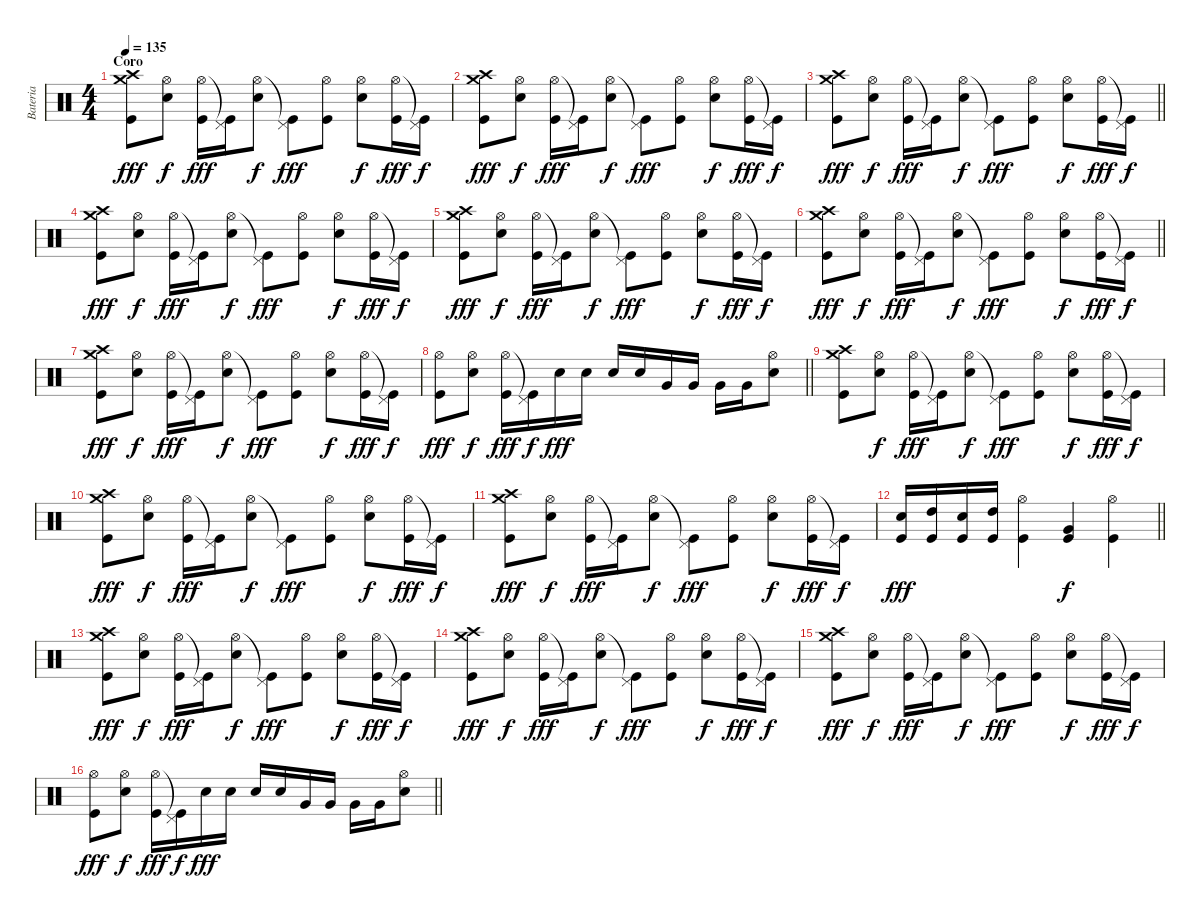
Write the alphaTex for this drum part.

\track ("Bateria" "Bateria") {instrument percussion}
\staff {score}
\articulation defaults
\ts (4 4)
\section ("" "Coro")
\tempo 135
\clef neutral
\ks c
("Crash high (hit)" "Crash medium (hit)" "Kick (hit)").8{dy fff} ("Hi-Hat (open)" "Electric Snare (hit)").8{dy f} ("Hi-Hat (open)" "Kick (hit)").16{dy fff} ("Pedal Hi-Hat (hit)"{t} "Kick (hit)").16 ("Hi-Hat (open)" "Electric Snare (hit)").8{dy f} ("Pedal Hi-Hat (hit)"{t} "Kick (hit)").8{dy fff} ("Hi-Hat (open)" "Kick (hit)").8 ("Hi-Hat (open)" "Electric Snare (hit)").8{dy f} ("Hi-Hat (open)" "Kick (hit)").16{dy fff} ("Pedal Hi-Hat (hit)"{t} "Kick (hit)").16{dy f} |
("Crash high (hit)" "Crash medium (hit)" "Kick (hit)").8{dy fff} ("Hi-Hat (open)" "Electric Snare (hit)").8{dy f} ("Hi-Hat (open)" "Kick (hit)").16{dy fff} ("Pedal Hi-Hat (hit)"{t} "Kick (hit)").16 ("Hi-Hat (open)" "Electric Snare (hit)").8{dy f} ("Pedal Hi-Hat (hit)"{t} "Kick (hit)").8{dy fff} ("Hi-Hat (open)" "Kick (hit)").8 ("Hi-Hat (open)" "Electric Snare (hit)").8{dy f} ("Hi-Hat (open)" "Kick (hit)").16{dy fff} ("Pedal Hi-Hat (hit)"{t} "Kick (hit)").16{dy f} |
\barLineRight lightlight
("Crash high (hit)" "Crash medium (hit)" "Kick (hit)").8{dy fff} ("Hi-Hat (open)" "Electric Snare (hit)").8{dy f} ("Hi-Hat (open)" "Kick (hit)").16{dy fff} ("Pedal Hi-Hat (hit)"{t} "Kick (hit)").16 ("Hi-Hat (open)" "Electric Snare (hit)").8{dy f} ("Pedal Hi-Hat (hit)"{t} "Kick (hit)").8{dy fff} ("Hi-Hat (open)" "Kick (hit)").8 ("Hi-Hat (open)" "Electric Snare (hit)").8{dy f} ("Hi-Hat (open)" "Kick (hit)").16{dy fff} ("Pedal Hi-Hat (hit)"{t} "Kick (hit)").16{dy f} |
("Crash high (hit)" "Crash medium (hit)" "Kick (hit)").8{dy fff} ("Hi-Hat (open)" "Electric Snare (hit)").8{dy f} ("Hi-Hat (open)" "Kick (hit)").16{dy fff} ("Pedal Hi-Hat (hit)"{t} "Kick (hit)").16 ("Hi-Hat (open)" "Electric Snare (hit)").8{dy f} ("Pedal Hi-Hat (hit)"{t} "Kick (hit)").8{dy fff} ("Hi-Hat (open)" "Kick (hit)").8 ("Hi-Hat (open)" "Electric Snare (hit)").8{dy f} ("Hi-Hat (open)" "Kick (hit)").16{dy fff} ("Pedal Hi-Hat (hit)"{t} "Kick (hit)").16{dy f} |
("Crash high (hit)" "Crash medium (hit)" "Kick (hit)").8{dy fff} ("Hi-Hat (open)" "Electric Snare (hit)").8{dy f} ("Hi-Hat (open)" "Kick (hit)").16{dy fff} ("Pedal Hi-Hat (hit)"{t} "Kick (hit)").16 ("Hi-Hat (open)" "Electric Snare (hit)").8{dy f} ("Pedal Hi-Hat (hit)"{t} "Kick (hit)").8{dy fff} ("Hi-Hat (open)" "Kick (hit)").8 ("Hi-Hat (open)" "Electric Snare (hit)").8{dy f} ("Hi-Hat (open)" "Kick (hit)").16{dy fff} ("Pedal Hi-Hat (hit)"{t} "Kick (hit)").16{dy f} |
\barLineRight lightlight
("Crash high (hit)" "Crash medium (hit)" "Kick (hit)").8{dy fff} ("Hi-Hat (open)" "Electric Snare (hit)").8{dy f} ("Hi-Hat (open)" "Kick (hit)").16{dy fff} ("Pedal Hi-Hat (hit)"{t} "Kick (hit)").16 ("Hi-Hat (open)" "Electric Snare (hit)").8{dy f} ("Pedal Hi-Hat (hit)"{t} "Kick (hit)").8{dy fff} ("Hi-Hat (open)" "Kick (hit)").8 ("Hi-Hat (open)" "Electric Snare (hit)").8{dy f} ("Hi-Hat (open)" "Kick (hit)").16{dy fff} ("Pedal Hi-Hat (hit)"{t} "Kick (hit)").16{dy f} |
("Crash high (hit)" "Crash medium (hit)" "Kick (hit)").8{dy fff} ("Hi-Hat (open)" "Electric Snare (hit)").8{dy f} ("Hi-Hat (open)" "Kick (hit)").16{dy fff} ("Pedal Hi-Hat (hit)"{t} "Kick (hit)").16 ("Hi-Hat (open)" "Electric Snare (hit)").8{dy f} ("Pedal Hi-Hat (hit)"{t} "Kick (hit)").8{dy fff} ("Hi-Hat (open)" "Kick (hit)").8 ("Hi-Hat (open)" "Electric Snare (hit)").8{dy f} ("Hi-Hat (open)" "Kick (hit)").16{dy fff} ("Pedal Hi-Hat (hit)"{t} "Kick (hit)").16{dy f} |
\barLineRight lightlight
("Hi-Hat (open)" "Kick (hit)").8{dy fff} ("Hi-Hat (open)" "Electric Snare (hit)").8{dy f} ("Hi-Hat (open)" "Kick (hit)").16{dy fff} ("Pedal Hi-Hat (hit)"{t} "Kick (hit)").16{dy f} "Electric Snare (hit)".16{dy fff} "Electric Snare (hit)".16 "Electric Snare (hit)".16 "Electric Snare (hit)".16 "Very Low Tom (hit)".16 "Very Low Tom (hit)".16 "Very Low Tom (hit)".16 "Very Low Tom (hit)".16 ("Hi-Hat (open)" "Electric Snare (hit)").8 |
\section ("" "")
("Crash high (hit)" "Crash medium (hit)" "Kick (hit)").8 ("Hi-Hat (open)" "Electric Snare (hit)").8{dy f} ("Hi-Hat (open)" "Kick (hit)").16{dy fff} ("Pedal Hi-Hat (hit)"{t} "Kick (hit)").16 ("Hi-Hat (open)" "Electric Snare (hit)").8{dy f} ("Pedal Hi-Hat (hit)"{t} "Kick (hit)").8{dy fff} ("Hi-Hat (open)" "Kick (hit)").8 ("Hi-Hat (open)" "Electric Snare (hit)").8{dy f} ("Hi-Hat (open)" "Kick (hit)").16{dy fff} ("Pedal Hi-Hat (hit)"{t} "Kick (hit)").16{dy f} |
("Crash high (hit)" "Crash medium (hit)" "Kick (hit)").8{dy fff} ("Hi-Hat (open)" "Electric Snare (hit)").8{dy f} ("Hi-Hat (open)" "Kick (hit)").16{dy fff} ("Pedal Hi-Hat (hit)"{t} "Kick (hit)").16 ("Hi-Hat (open)" "Electric Snare (hit)").8{dy f} ("Pedal Hi-Hat (hit)"{t} "Kick (hit)").8{dy fff} ("Hi-Hat (open)" "Kick (hit)").8 ("Hi-Hat (open)" "Electric Snare (hit)").8{dy f} ("Hi-Hat (open)" "Kick (hit)").16{dy fff} ("Pedal Hi-Hat (hit)"{t} "Kick (hit)").16{dy f} |
("Crash high (hit)" "Crash medium (hit)" "Kick (hit)").8{dy fff} ("Hi-Hat (open)" "Electric Snare (hit)").8{dy f} ("Hi-Hat (open)" "Kick (hit)").16{dy fff} ("Pedal Hi-Hat (hit)"{t} "Kick (hit)").16 ("Hi-Hat (open)" "Electric Snare (hit)").8{dy f} ("Pedal Hi-Hat (hit)"{t} "Kick (hit)").8{dy fff} ("Hi-Hat (open)" "Kick (hit)").8 ("Hi-Hat (open)" "Electric Snare (hit)").8{dy f} ("Hi-Hat (open)" "Kick (hit)").16{dy fff} ("Pedal Hi-Hat (hit)"{t} "Kick (hit)").16{dy f} |
\barLineRight lightlight
("Electric Snare (hit)" "Kick (hit)").16{dy fff} ("High Tom (hit)" "Kick (hit)").16 ("Electric Snare (hit)" "Kick (hit)").16 ("High Tom (hit)" "Kick (hit)").16 ("Hi-Hat (open)" "Kick (hit)").4 ("Very Low Tom (hit)" "Kick (hit)").4{dy f} ("Hi-Hat (open)" "Kick (hit)").4 |
\section ("" "")
("Crash high (hit)" "Crash medium (hit)" "Kick (hit)").8{dy fff} ("Hi-Hat (open)" "Electric Snare (hit)").8{dy f} ("Hi-Hat (open)" "Kick (hit)").16{dy fff} ("Pedal Hi-Hat (hit)"{t} "Kick (hit)").16 ("Hi-Hat (open)" "Electric Snare (hit)").8{dy f} ("Pedal Hi-Hat (hit)"{t} "Kick (hit)").8{dy fff} ("Hi-Hat (open)" "Kick (hit)").8 ("Hi-Hat (open)" "Electric Snare (hit)").8{dy f} ("Hi-Hat (open)" "Kick (hit)").16{dy fff} ("Pedal Hi-Hat (hit)"{t} "Kick (hit)").16{dy f} |
("Crash high (hit)" "Crash medium (hit)" "Kick (hit)").8{dy fff} ("Hi-Hat (open)" "Electric Snare (hit)").8{dy f} ("Hi-Hat (open)" "Kick (hit)").16{dy fff} ("Pedal Hi-Hat (hit)"{t} "Kick (hit)").16 ("Hi-Hat (open)" "Electric Snare (hit)").8{dy f} ("Pedal Hi-Hat (hit)"{t} "Kick (hit)").8{dy fff} ("Hi-Hat (open)" "Kick (hit)").8 ("Hi-Hat (open)" "Electric Snare (hit)").8{dy f} ("Hi-Hat (open)" "Kick (hit)").16{dy fff} ("Pedal Hi-Hat (hit)"{t} "Kick (hit)").16{dy f} |
("Crash high (hit)" "Crash medium (hit)" "Kick (hit)").8{dy fff} ("Hi-Hat (open)" "Electric Snare (hit)").8{dy f} ("Hi-Hat (open)" "Kick (hit)").16{dy fff} ("Pedal Hi-Hat (hit)"{t} "Kick (hit)").16 ("Hi-Hat (open)" "Electric Snare (hit)").8{dy f} ("Pedal Hi-Hat (hit)"{t} "Kick (hit)").8{dy fff} ("Hi-Hat (open)" "Kick (hit)").8 ("Hi-Hat (open)" "Electric Snare (hit)").8{dy f} ("Hi-Hat (open)" "Kick (hit)").16{dy fff} ("Pedal Hi-Hat (hit)"{t} "Kick (hit)").16{dy f} |
\barLineRight lightlight
("Hi-Hat (open)" "Kick (hit)").8{dy fff} ("Hi-Hat (open)" "Electric Snare (hit)").8{dy f} ("Hi-Hat (open)" "Kick (hit)").16{dy fff} ("Pedal Hi-Hat (hit)"{t} "Kick (hit)").16{dy f} "Electric Snare (hit)".16{dy fff} "Electric Snare (hit)".16 "Electric Snare (hit)".16 "Electric Snare (hit)".16 "Very Low Tom (hit)".16 "Very Low Tom (hit)".16 "Very Low Tom (hit)".16 "Very Low Tom (hit)".16 ("Hi-Hat (open)" "Electric Snare (hit)").8
